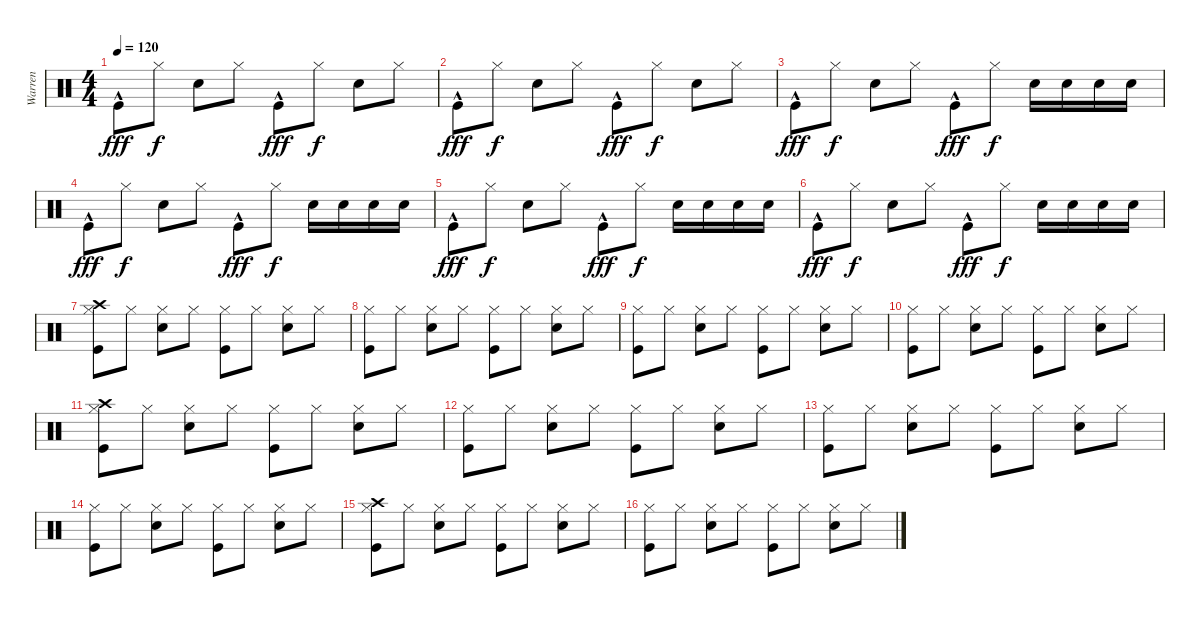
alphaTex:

\track ("Warren" "Warren") {instrument percussion}
\staff {score}
\articulation defaults
\ts (4 4)
\tempo 120
\clef neutral
\ks c "Kick (hit)"{hac}.8{dy fff} "Hi-Hat (closed)".8{dy f} "Electric Snare (hit)".8 "Hi-Hat (closed)".8 "Kick (hit)"{hac}.8{dy fff} "Hi-Hat (closed)".8{dy f} "Electric Snare (hit)".8 "Hi-Hat (closed)".8
|
"Kick (hit)"{hac}.8{dy fff} "Hi-Hat (closed)".8{dy f} "Electric Snare (hit)".8 "Hi-Hat (closed)".8 "Kick (hit)"{hac}.8{dy fff} "Hi-Hat (closed)".8{dy f} "Electric Snare (hit)".8 "Hi-Hat (closed)".8 |
"Kick (hit)"{hac}.8{dy fff} "Hi-Hat (closed)".8{dy f} "Electric Snare (hit)".8 "Hi-Hat (closed)".8 "Kick (hit)"{hac}.8{dy fff} "Hi-Hat (closed)".8{dy f} "Electric Snare (hit)".16 "Electric Snare (hit)".16 "Electric Snare (hit)".16 "Electric Snare (hit)".16 |
"Kick (hit)"{hac}.8{dy fff} "Hi-Hat (closed)".8{dy f} "Electric Snare (hit)".8 "Hi-Hat (closed)".8 "Kick (hit)"{hac}.8{dy fff} "Hi-Hat (closed)".8{dy f} "Electric Snare (hit)".16 "Electric Snare (hit)".16 "Electric Snare (hit)".16 "Electric Snare (hit)".16 |
"Kick (hit)"{hac}.8{dy fff} "Hi-Hat (closed)".8{dy f} "Electric Snare (hit)".8 "Hi-Hat (closed)".8 "Kick (hit)"{hac}.8{dy fff} "Hi-Hat (closed)".8{dy f} "Electric Snare (hit)".16 "Electric Snare (hit)".16 "Electric Snare (hit)".16 "Electric Snare (hit)".16 |
"Kick (hit)"{hac}.8{dy fff} "Hi-Hat (closed)".8{dy f} "Electric Snare (hit)".8 "Hi-Hat (closed)".8 "Kick (hit)"{hac}.8{dy fff} "Hi-Hat (closed)".8{dy f} "Electric Snare (hit)".16 "Electric Snare (hit)".16 "Electric Snare (hit)".16 "Electric Snare (hit)".16 |
("Crash high (hit)" "Hi-Hat (closed)" "Kick (hit)").8 "Hi-Hat (closed)".8 ("Hi-Hat (closed)" "Electric Snare (hit)").8 "Hi-Hat (closed)".8 ("Hi-Hat (closed)" "Kick (hit)").8 "Hi-Hat (closed)".8 ("Hi-Hat (closed)" "Electric Snare (hit)").8 "Hi-Hat (closed)".8 |
("Hi-Hat (closed)" "Kick (hit)").8 "Hi-Hat (closed)".8 ("Hi-Hat (closed)" "Electric Snare (hit)").8 "Hi-Hat (closed)".8 ("Hi-Hat (closed)" "Kick (hit)").8 "Hi-Hat (closed)".8 ("Hi-Hat (closed)" "Electric Snare (hit)").8 "Hi-Hat (closed)".8 |
("Hi-Hat (closed)" "Kick (hit)").8 "Hi-Hat (closed)".8 ("Hi-Hat (closed)" "Electric Snare (hit)").8 "Hi-Hat (closed)".8 ("Hi-Hat (closed)" "Kick (hit)").8 "Hi-Hat (closed)".8 ("Hi-Hat (closed)" "Electric Snare (hit)").8 "Hi-Hat (closed)".8 |
("Hi-Hat (closed)" "Kick (hit)").8 "Hi-Hat (closed)".8 ("Hi-Hat (closed)" "Electric Snare (hit)").8 "Hi-Hat (closed)".8 ("Hi-Hat (closed)" "Kick (hit)").8 "Hi-Hat (closed)".8 ("Hi-Hat (closed)" "Electric Snare (hit)").8 "Hi-Hat (closed)".8 |
("Crash high (hit)" "Hi-Hat (closed)" "Kick (hit)").8 "Hi-Hat (closed)".8 ("Hi-Hat (closed)" "Electric Snare (hit)").8 "Hi-Hat (closed)".8 ("Hi-Hat (closed)" "Kick (hit)").8 "Hi-Hat (closed)".8 ("Hi-Hat (closed)" "Electric Snare (hit)").8 "Hi-Hat (closed)".8 |
("Hi-Hat (closed)" "Kick (hit)").8 "Hi-Hat (closed)".8 ("Hi-Hat (closed)" "Electric Snare (hit)").8 "Hi-Hat (closed)".8 ("Hi-Hat (closed)" "Kick (hit)").8 "Hi-Hat (closed)".8 ("Hi-Hat (closed)" "Electric Snare (hit)").8 "Hi-Hat (closed)".8 |
("Hi-Hat (closed)" "Kick (hit)").8 "Hi-Hat (closed)".8 ("Hi-Hat (closed)" "Electric Snare (hit)").8 "Hi-Hat (closed)".8 ("Hi-Hat (closed)" "Kick (hit)").8 "Hi-Hat (closed)".8 ("Hi-Hat (closed)" "Electric Snare (hit)").8 "Hi-Hat (closed)".8 |
("Hi-Hat (closed)" "Kick (hit)").8 "Hi-Hat (closed)".8 ("Hi-Hat (closed)" "Electric Snare (hit)").8 "Hi-Hat (closed)".8 ("Hi-Hat (closed)" "Kick (hit)").8 "Hi-Hat (closed)".8 ("Hi-Hat (closed)" "Electric Snare (hit)").8 "Hi-Hat (closed)".8 |
("Crash high (hit)" "Hi-Hat (closed)" "Kick (hit)").8 "Hi-Hat (closed)".8 ("Hi-Hat (closed)" "Electric Snare (hit)").8 "Hi-Hat (closed)".8 ("Hi-Hat (closed)" "Kick (hit)").8 "Hi-Hat (closed)".8 ("Hi-Hat (closed)" "Electric Snare (hit)").8 "Hi-Hat (closed)".8 |
("Hi-Hat (closed)" "Kick (hit)").8 "Hi-Hat (closed)".8 ("Hi-Hat (closed)" "Electric Snare (hit)").8 "Hi-Hat (closed)".8 ("Hi-Hat (closed)" "Kick (hit)").8 "Hi-Hat (closed)".8 ("Hi-Hat (closed)" "Electric Snare (hit)").8 "Hi-Hat (closed)".8
